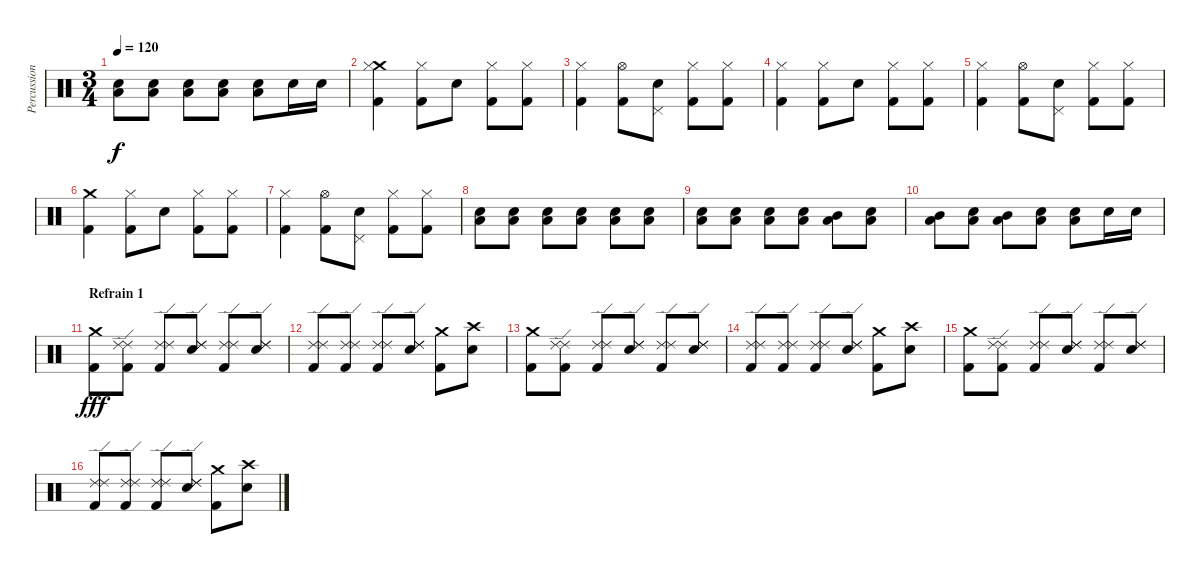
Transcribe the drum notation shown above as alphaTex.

\track ("Percussions" "Percussion") {instrument percussion}
\staff {score}
\articulation defaults
\ts (3 4)
\tempo 120
\clef neutral
\ks c
("Snare (hit) 2" "Low Floor Tom (hit)").8{dy f} ("Snare (hit) 2" "Low Floor Tom (hit)").8 ("Snare (hit) 2" "Low Floor Tom (hit)").8 ("Snare (hit) 2" "Low Floor Tom (hit)").8 ("Snare (hit) 2" "Low Floor Tom (hit)").8 "Snare (hit) 2".16 "Snare (hit) 2".16 |
("Crash medium (hit)" "Hi-Hat (closed)" "Kick (hit) 2").4 ("Hi-Hat (closed)" "Kick (hit) 2").8 "Snare (hit) 2".8 ("Hi-Hat (closed)" "Kick (hit) 2").8 ("Hi-Hat (closed)" "Kick (hit) 2").8 |
("Hi-Hat (closed)" "Kick (hit) 2").4 ("Hi-Hat (open)" "Kick (hit) 2").8 ("Pedal Hi-Hat (hit)" "Snare (hit) 2").8 ("Hi-Hat (closed)" "Kick (hit) 2").8 ("Hi-Hat (closed)" "Kick (hit) 2").8 |
("Hi-Hat (closed)" "Kick (hit) 2").4 ("Hi-Hat (closed)" "Kick (hit) 2").8 "Snare (hit) 2".8 ("Hi-Hat (closed)" "Kick (hit) 2").8 ("Hi-Hat (closed)" "Kick (hit) 2").8 |
("Hi-Hat (closed)" "Kick (hit) 2").4 ("Hi-Hat (open)" "Kick (hit) 2").8 ("Pedal Hi-Hat (hit)" "Snare (hit) 2").8 ("Hi-Hat (closed)" "Kick (hit) 2").8 ("Hi-Hat (closed)" "Kick (hit) 2").8 |
("Crash medium (hit)" "Kick (hit) 2").4 ("Hi-Hat (closed)" "Kick (hit) 2").8 "Snare (hit) 2".8 ("Hi-Hat (closed)" "Kick (hit) 2").8 ("Hi-Hat (closed)" "Kick (hit) 2").8 |
("Hi-Hat (closed)" "Kick (hit) 2").4 ("Hi-Hat (open)" "Kick (hit) 2").8 ("Pedal Hi-Hat (hit)" "Snare (hit) 2").8 ("Hi-Hat (closed)" "Kick (hit) 2").8 ("Hi-Hat (closed)" "Kick (hit) 2").8 |
("Snare (hit) 2" "Low Floor Tom (hit)").8{volume 4} ("Snare (hit) 2" "Low Floor Tom (hit)").8{volume 13} ("Snare (hit) 2" "Low Floor Tom (hit)").8 ("Snare (hit) 2" "Low Floor Tom (hit)").8 ("Snare (hit) 2" "Low Floor Tom (hit)").8 ("Snare (hit) 2" "Low Floor Tom (hit)").8 |
("Snare (hit) 2" "Low Floor Tom (hit)").8 ("Snare (hit) 2" "Low Floor Tom (hit)").8 ("Snare (hit) 2" "Low Floor Tom (hit)").8 ("Snare (hit) 2" "Low Floor Tom (hit)").8 ("Mid Tom (hit)" "Low Tom (hit)").8 ("Snare (hit) 2" "Low Floor Tom (hit)").8 |
("Mid Tom (hit)" "Low Tom (hit)").8 ("Snare (hit) 2" "Low Floor Tom (hit)").8 ("Mid Tom (hit)" "Low Tom (hit)").8 ("Snare (hit) 2" "Low Floor Tom (hit)").8 ("Snare (hit) 2" "Low Floor Tom (hit)").8 "Snare (hit) 2".16 "Snare (hit) 2".16 |
\section ("" "Refrain 1")
("Crash medium (hit)" "Kick (hit) 2").8{dy fff} ("Ride (edge) 2" "Ride (edge) 2" "Kick (hit) 2").8 ("Ride (edge) 2" "Ride (edge) 2" "Kick (hit) 2").8 ("Ride (edge) 2" "Ride (edge) 2" "Snare (hit) 2").8 ("Ride (edge) 2" "Ride (edge) 2" "Kick (hit) 2").8 ("Ride (edge) 2" "Ride (edge) 2" "Snare (hit) 2").8 |
("Ride (edge) 2" "Ride (edge) 2" "Kick (hit) 2").8 ("Ride (edge) 2" "Ride (edge) 2" "Kick (hit) 2").8 ("Ride (edge) 2" "Ride (edge) 2" "Kick (hit) 2").8 ("Ride (edge) 2" "Ride (edge) 2" "Snare (hit) 2").8 ("Crash medium (hit)" "Kick (hit) 2").8 ("Crash high (hit)" "Snare (hit) 2").8 |
("Crash medium (hit)" "Kick (hit) 2").8 ("Ride (edge) 2" "Ride (edge) 2" "Kick (hit) 2").8 ("Ride (edge) 2" "Ride (edge) 2" "Kick (hit) 2").8 ("Ride (edge) 2" "Ride (edge) 2" "Snare (hit) 2").8 ("Ride (edge) 2" "Ride (edge) 2" "Kick (hit) 2").8 ("Ride (edge) 2" "Ride (edge) 2" "Snare (hit) 2").8 |
("Ride (edge) 2" "Ride (edge) 2" "Kick (hit) 2").8 ("Ride (edge) 2" "Ride (edge) 2" "Kick (hit) 2").8 ("Ride (edge) 2" "Ride (edge) 2" "Kick (hit) 2").8 ("Ride (edge) 2" "Ride (edge) 2" "Snare (hit) 2").8 ("Crash medium (hit)" "Kick (hit) 2").8 ("Crash high (hit)" "Snare (hit) 2").8 |
("Crash medium (hit)" "Kick (hit) 2").8 ("Ride (edge) 2" "Ride (edge) 2" "Kick (hit) 2").8 ("Ride (edge) 2" "Ride (edge) 2" "Kick (hit) 2").8 ("Ride (edge) 2" "Ride (edge) 2" "Snare (hit) 2").8 ("Ride (edge) 2" "Ride (edge) 2" "Kick (hit) 2").8 ("Ride (edge) 2" "Ride (edge) 2" "Snare (hit) 2").8 |
("Ride (edge) 2" "Ride (edge) 2" "Kick (hit) 2").8 ("Ride (edge) 2" "Ride (edge) 2" "Kick (hit) 2").8 ("Ride (edge) 2" "Ride (edge) 2" "Kick (hit) 2").8 ("Ride (edge) 2" "Ride (edge) 2" "Snare (hit) 2").8 ("Crash medium (hit)" "Kick (hit) 2").8 ("Crash high (hit)" "Snare (hit) 2").8
